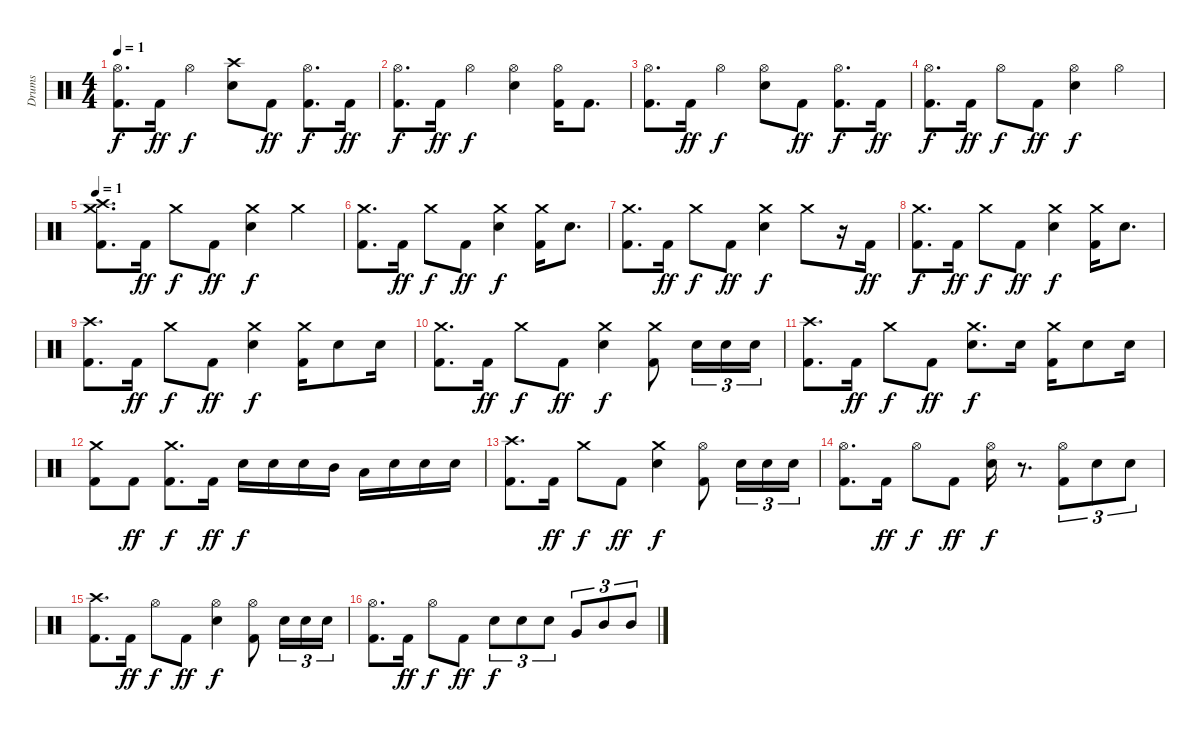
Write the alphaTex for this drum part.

\track ("Drums" "Drums") {instrument percussion}
\staff {score}
\articulation defaults
\ts (4 4)
\tempo 1
\clef neutral
\ks c
("Hi-Hat (open)" "Kick (hit) 2").8{d dy f} "Kick (hit) 2".16{dy ff} "Hi-Hat (open)".4{dy f} ("Crash high (hit)" "Snare (hit) 2").8 "Kick (hit) 2".8{dy ff} ("Hi-Hat (open)" "Kick (hit) 2").8{d dy f} "Kick (hit) 2".16{dy ff} |
("Hi-Hat (open)" "Kick (hit) 2").8{d dy f} "Kick (hit) 2".16{dy ff} "Hi-Hat (open)".4{dy f} ("Hi-Hat (open)" "Snare (hit) 2").4 ("Hi-Hat (open)" "Kick (hit) 2").16 "Kick (hit) 2".8{d} |
("Hi-Hat (open)" "Kick (hit) 2").8{d} "Kick (hit) 2".16{dy ff} "Hi-Hat (open)".4{dy f} ("Hi-Hat (open)" "Snare (hit) 2").8 "Kick (hit) 2".8{dy ff} ("Hi-Hat (open)" "Kick (hit) 2").8{d dy f} "Kick (hit) 2".16{dy ff} |
("Hi-Hat (open)" "Kick (hit) 2").8{d dy f} "Kick (hit) 2".16{dy ff} "Hi-Hat (open)".8{dy f} "Kick (hit) 2".8{dy ff} ("Hi-Hat (open)" "Snare (hit) 2").4{dy f} "Hi-Hat (open)".4 |
\tempo 1
("Crash high (hit)" "Crash medium (hit)" "Kick (hit) 2").8{d} "Kick (hit) 2".16{dy ff} "Crash medium (hit)".8{dy f} "Kick (hit) 2".8{dy ff} ("Crash medium (hit)" "Snare (hit) 2").4{dy f} "Crash medium (hit)".4 |
("Crash medium (hit)" "Kick (hit) 2").8{d} "Kick (hit) 2".16{dy ff} "Crash medium (hit)".8{dy f} "Kick (hit) 2".8{dy ff} ("Crash medium (hit)" "Snare (hit) 2").4{dy f} ("Crash medium (hit)" "Kick (hit) 2").16 "Snare (hit) 2".8{d} |
("Crash medium (hit)" "Kick (hit) 2").8{d} "Kick (hit) 2".16{dy ff} "Crash medium (hit)".8{dy f} "Kick (hit) 2".8{dy ff} ("Crash medium (hit)" "Snare (hit) 2").4{dy f} "Crash medium (hit)".8 r.16 "Kick (hit) 2".16{dy ff} |
("Crash medium (hit)" "Kick (hit) 2").8{d dy f} "Kick (hit) 2".16{dy ff} "Crash medium (hit)".8{dy f} "Kick (hit) 2".8{dy ff} ("Crash medium (hit)" "Snare (hit) 2").4{dy f} ("Crash medium (hit)" "Kick (hit) 2").16 "Snare (hit) 2".8{d} |
("Crash high (hit)" "Kick (hit) 2").8{d} "Kick (hit) 2".16{dy ff} "Crash medium (hit)".8{dy f} "Kick (hit) 2".8{dy ff} ("Crash medium (hit)" "Snare (hit) 2").4{dy f} ("Crash medium (hit)" "Kick (hit) 2").16 "Snare (hit) 2".8 "Snare (hit) 2".16 |
("Crash medium (hit)" "Kick (hit) 2").8{d} "Kick (hit) 2".16{dy ff} "Crash medium (hit)".8{dy f} "Kick (hit) 2".8{dy ff} ("Crash medium (hit)" "Snare (hit) 2").4{dy f} ("Crash medium (hit)" "Kick (hit) 2").8 "Snare (hit) 2".16{tu (3 2)} "Snare (hit) 2".16{tu (3 2)} "Snare (hit) 2".16{tu (3 2)} |
("Crash high (hit)" "Kick (hit) 2").8{d} "Kick (hit) 2".16{dy ff} "Crash medium (hit)".8{dy f} "Kick (hit) 2".8{dy ff} ("Crash medium (hit)" "Snare (hit) 2").8{d dy f} "Snare (hit) 2".16 ("Crash medium (hit)" "Kick (hit) 2").16 "Snare (hit) 2".8 "Snare (hit) 2".16 |
("Crash medium (hit)" "Kick (hit) 2").8 "Kick (hit) 2".8{dy ff} ("Crash medium (hit)" "Kick (hit) 2").8{d dy f} "Kick (hit) 2".16{dy ff} "Snare (hit) 2".16{dy f} "Snare (hit) 2".16 "Snare (hit) 2".16 "Mid Tom (hit)".16 "Low Tom (hit)".16 "Snare (hit) 2".16 "Snare (hit) 2".16 "Snare (hit) 2".16 |
("Crash high (hit)" "Kick (hit) 2").8{d} "Kick (hit) 2".16{dy ff} "Crash medium (hit)".8{dy f} "Kick (hit) 2".8{dy ff} ("Crash medium (hit)" "Snare (hit) 2").4{dy f} ("Hi-Hat (open)" "Kick (hit) 2").8 "Snare (hit) 2".16{tu (3 2)} "Snare (hit) 2".16{tu (3 2)} "Snare (hit) 2".16{tu (3 2)} |
("Hi-Hat (open)" "Kick (hit) 2").8{d} "Kick (hit) 2".16{dy ff} "Hi-Hat (open)".8{dy f} "Kick (hit) 2".8{dy ff} ("Hi-Hat (open)" "Snare (hit) 2").16{dy f} r.8{d} ("Hi-Hat (open)" "Kick (hit) 2").8{tu (3 2)} "Snare (hit) 2".8{tu (3 2)} "Snare (hit) 2".8{tu (3 2)} |
("Crash high (hit)" "Kick (hit) 2").8{d} "Kick (hit) 2".16{dy ff} "Hi-Hat (open)".8{dy f} "Kick (hit) 2".8{dy ff} ("Hi-Hat (open)" "Snare (hit) 2").4{dy f} ("Hi-Hat (open)" "Kick (hit) 2").8 "Snare (hit) 2".16{tu (3 2)} "Snare (hit) 2".16{tu (3 2)} "Snare (hit) 2".16{tu (3 2)} |
("Hi-Hat (open)" "Kick (hit) 2").8{d} "Kick (hit) 2".16{dy ff} "Hi-Hat (open)".8{dy f} "Kick (hit) 2".8{dy ff} "Snare (hit) 2".8{tu (3 2) dy f} "Snare (hit) 2".8{tu (3 2)} "Snare (hit) 2".8{tu (3 2)} "Very Low Tom (hit)".8{tu (3 2)} "Mid Tom (hit)".8{tu (3 2)} "Mid Tom (hit)".8{tu (3 2)}
